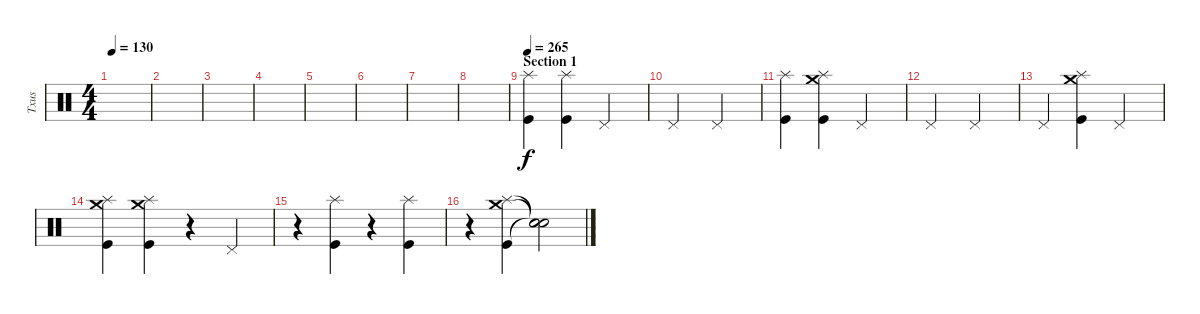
\track ("Txus" "Txus") {instrument percussion}
\staff {score}
\articulation defaults
\ts (4 4)
\tempo 130
\clef neutral
\ks c
|
|
|
|
|
|
|
|
\section ("" "Section 1")
\tempo 265
("Kick (hit)" "Splash (hit)").4 ("Kick (hit)" "Splash (hit)").4 "Pedal Hi-Hat (hit)".2 |
"Pedal Hi-Hat (hit)".2 "Pedal Hi-Hat (hit)".2 |
("Kick (hit)" "Splash (hit)").4 ("Kick (hit)" "Splash (hit)" "Crash medium (hit)").4 "Pedal Hi-Hat (hit)".2 |
"Pedal Hi-Hat (hit)".2 "Pedal Hi-Hat (hit)".2 |
"Pedal Hi-Hat (hit)".4 ("Kick (hit)" "Splash (hit)" "Crash medium (hit)").4 "Pedal Hi-Hat (hit)".2 |
("Kick (hit)" "Splash (hit)" "Crash medium (hit)").4 ("Kick (hit)" "Splash (hit)" "Crash medium (hit)").4 r.4 "Pedal Hi-Hat (hit)".4 |
r.4 ("Kick (hit)" "Splash (hit)").4 r.4 ("Kick (hit)" "Splash (hit)").4 |
r.4 ("Kick (hit)" "Splash (hit)" "Crash medium (hit)").4 ("Snare (hit)"{t} "Snare (hit)"{t} "Snare (hit)"{t}).2
